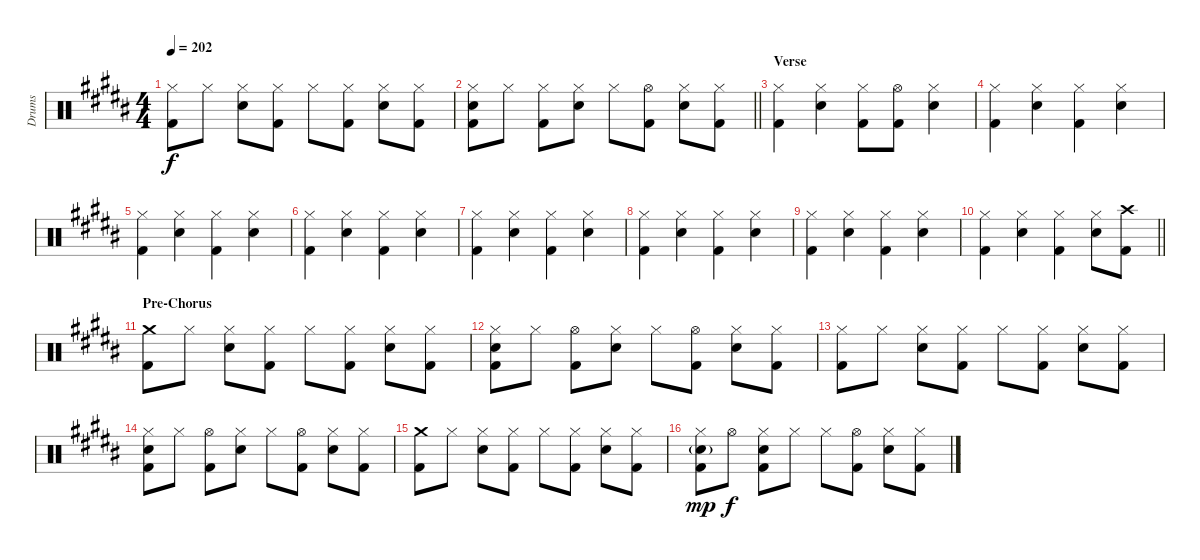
\track ("Drums" "Drums") {instrument percussion}
\staff {score}
\articulation defaults
\ts (4 4)
\tempo 202
\clef neutral
\ks g#minor
("Hi-Hat (closed)" "Kick (hit) 2").8{dy f} "Hi-Hat (closed)".8 ("Hi-Hat (closed)" "Electric Snare (hit)").8 ("Hi-Hat (closed)" "Kick (hit) 2").8 "Hi-Hat (closed)".8 ("Hi-Hat (closed)" "Kick (hit) 2").8 ("Hi-Hat (closed)" "Electric Snare (hit)").8 ("Hi-Hat (closed)" "Kick (hit) 2").8 |
\barLineRight lightlight
("Hi-Hat (closed)" "Electric Snare (hit)" "Kick (hit) 2").8 "Hi-Hat (closed)".8 ("Hi-Hat (closed)" "Kick (hit) 2").8 ("Hi-Hat (closed)" "Electric Snare (hit)").8 "Hi-Hat (closed)".8 ("Hi-Hat (open)" "Kick (hit) 2").8 ("Hi-Hat (closed)" "Electric Snare (hit)").8 ("Hi-Hat (closed)" "Kick (hit) 2").8 |
\section ("" "Verse")
("Hi-Hat (closed)" "Kick (hit) 2").4 ("Hi-Hat (closed)" "Electric Snare (hit)").4 ("Hi-Hat (closed)" "Kick (hit) 2").8 ("Hi-Hat (open)" "Kick (hit) 2").8 ("Hi-Hat (closed)" "Electric Snare (hit)").4 |
("Hi-Hat (closed)" "Kick (hit) 2").4 ("Hi-Hat (closed)" "Electric Snare (hit)").4 ("Hi-Hat (closed)" "Kick (hit) 2").4 ("Hi-Hat (closed)" "Electric Snare (hit)").4 |
("Hi-Hat (closed)" "Kick (hit) 2").4 ("Hi-Hat (closed)" "Electric Snare (hit)").4 ("Hi-Hat (closed)" "Kick (hit) 2").4 ("Hi-Hat (closed)" "Electric Snare (hit)").4 |
("Hi-Hat (closed)" "Kick (hit) 2").4 ("Hi-Hat (closed)" "Electric Snare (hit)").4 ("Hi-Hat (closed)" "Kick (hit) 2").4 ("Hi-Hat (closed)" "Electric Snare (hit)").4 |
("Hi-Hat (closed)" "Kick (hit) 2").4 ("Hi-Hat (closed)" "Electric Snare (hit)").4 ("Hi-Hat (closed)" "Kick (hit) 2").4 ("Hi-Hat (closed)" "Electric Snare (hit)").4 |
("Hi-Hat (closed)" "Kick (hit) 2").4 ("Hi-Hat (closed)" "Electric Snare (hit)").4 ("Hi-Hat (closed)" "Kick (hit) 2").4 ("Hi-Hat (closed)" "Electric Snare (hit)").4 |
("Hi-Hat (closed)" "Kick (hit) 2").4 ("Hi-Hat (closed)" "Electric Snare (hit)").4 ("Hi-Hat (closed)" "Kick (hit) 2").4 ("Hi-Hat (closed)" "Electric Snare (hit)").4 |
\barLineRight lightlight
("Hi-Hat (closed)" "Kick (hit) 2").4 ("Hi-Hat (closed)" "Electric Snare (hit)").4 ("Hi-Hat (closed)" "Kick (hit) 2").4 ("Hi-Hat (closed)" "Electric Snare (hit)").8 ("Crash high (hit)" "Kick (hit) 2").8 |
\section ("" "Pre-Chorus")
("Crash medium (hit)" "Kick (hit) 2").8 "Hi-Hat (closed)".8 ("Hi-Hat (closed)" "Electric Snare (hit)").8 ("Hi-Hat (closed)" "Kick (hit) 2").8 "Hi-Hat (closed)".8 ("Hi-Hat (closed)" "Kick (hit) 2").8 ("Hi-Hat (closed)" "Electric Snare (hit)").8 ("Hi-Hat (closed)" "Kick (hit) 2").8 |
("Hi-Hat (closed)" "Electric Snare (hit)" "Kick (hit) 2").8 "Hi-Hat (closed)".8 ("Hi-Hat (open)" "Kick (hit) 2").8 ("Hi-Hat (closed)" "Electric Snare (hit)").8 "Hi-Hat (closed)".8 ("Hi-Hat (open)" "Kick (hit) 2").8 ("Hi-Hat (closed)" "Electric Snare (hit)").8 ("Hi-Hat (closed)" "Kick (hit) 2").8 |
("Hi-Hat (closed)" "Kick (hit) 2").8 "Hi-Hat (closed)".8 ("Hi-Hat (closed)" "Electric Snare (hit)").8 ("Hi-Hat (closed)" "Kick (hit) 2").8 "Hi-Hat (closed)".8 ("Hi-Hat (closed)" "Kick (hit) 2").8 ("Hi-Hat (closed)" "Electric Snare (hit)").8 ("Hi-Hat (closed)" "Kick (hit) 2").8 |
("Hi-Hat (closed)" "Electric Snare (hit)" "Kick (hit) 2").8 "Hi-Hat (closed)".8 ("Hi-Hat (open)" "Kick (hit) 2").8 ("Hi-Hat (closed)" "Electric Snare (hit)").8 "Hi-Hat (closed)".8 ("Hi-Hat (open)" "Kick (hit) 2").8 ("Hi-Hat (closed)" "Electric Snare (hit)").8 ("Hi-Hat (closed)" "Kick (hit) 2").8 |
("Crash medium (hit)" "Kick (hit) 2").8 "Hi-Hat (closed)".8 ("Hi-Hat (closed)" "Electric Snare (hit)").8 ("Hi-Hat (closed)" "Kick (hit) 2").8 "Hi-Hat (closed)".8 ("Hi-Hat (closed)" "Kick (hit) 2").8 ("Hi-Hat (closed)" "Electric Snare (hit)").8 ("Hi-Hat (closed)" "Kick (hit) 2").8 |
("Hi-Hat (closed)" "Electric Snare (hit)"{g} "Kick (hit) 2").8{dy mp} "Hi-Hat (open)".8{dy f} ("Hi-Hat (closed)" "Electric Snare (hit)" "Kick (hit) 2").8 "Hi-Hat (closed)".8 "Hi-Hat (closed)".8 ("Hi-Hat (open)" "Kick (hit) 2").8 ("Hi-Hat (closed)" "Electric Snare (hit)").8 ("Hi-Hat (closed)" "Kick (hit) 2").8
